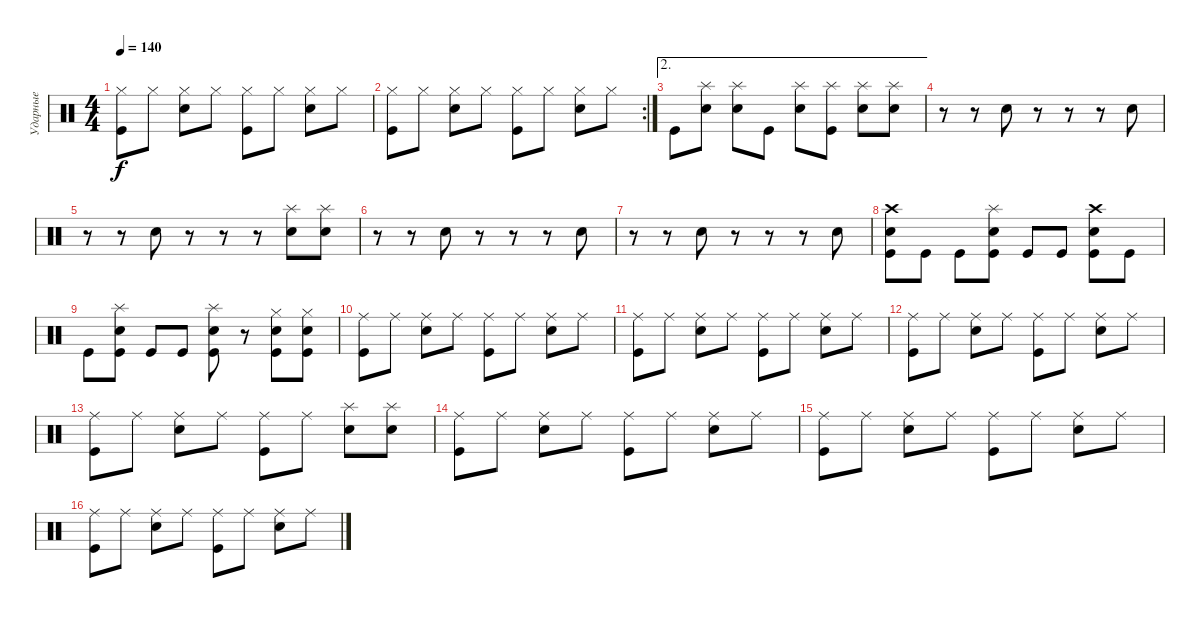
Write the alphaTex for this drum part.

\track ("Ударные" "Ударные") {instrument percussion}
\staff {score}
\articulation defaults
\ts (4 4)
\tempo 140
\clef neutral
\ks c
("Hi-Hat (closed)" "Kick (hit)").8{dy f} "Hi-Hat (closed)".8 ("Hi-Hat (closed)" "Snare (hit) 2").8 "Hi-Hat (closed)".8 ("Hi-Hat (closed)" "Kick (hit)").8 "Hi-Hat (closed)".8 ("Hi-Hat (closed)" "Snare (hit) 2").8 "Hi-Hat (closed)".8 |
\rc 2
("Hi-Hat (closed)" "Kick (hit)").8 "Hi-Hat (closed)".8 ("Hi-Hat (closed)" "Snare (hit) 2").8 "Hi-Hat (closed)".8 ("Hi-Hat (closed)" "Kick (hit)").8 "Hi-Hat (closed)".8 ("Hi-Hat (closed)" "Snare (hit) 2").8 "Hi-Hat (closed)".8 |
\ae 2 "Kick (hit)".8
("Splash (hit)" "Snare (hit) 2").8 ("Splash (hit)" "Snare (hit) 2").8 "Kick (hit)".8 ("Splash (hit)" "Snare (hit) 2").8 ("Splash (hit)" "Kick (hit)").8 ("Splash (hit)" "Snare (hit) 2").8 ("Splash (hit)" "Snare (hit) 2").8 |
r.8 r.8 "Snare (hit) 2".8 r.8 r.8 r.8 "Snare (hit) 2".8 |
r.8 r.8 "Snare (hit) 2".8 r.8 r.8 r.8 ("Splash (hit)" "Snare (hit) 2").8 ("Splash (hit)" "Snare (hit) 2").8 |
r.8 r.8 "Snare (hit) 2".8 r.8 r.8 r.8 "Snare (hit) 2".8 |
r.8 r.8 "Snare (hit) 2".8 r.8 r.8 r.8 "Snare (hit) 2".8 |
("Kick (hit)" "Crash high (hit)" "Snare (hit) 2").8 "Kick (hit)".8 "Kick (hit)".8 ("Kick (hit)" "Splash (hit)" "Snare (hit) 2").8 "Kick (hit)".8 "Kick (hit)".8 ("Kick (hit)" "Crash high (hit)" "Snare (hit) 2").8 "Kick (hit)".8 |
"Kick (hit)".8 ("Kick (hit)" "Splash (hit)" "Snare (hit) 2").8 "Kick (hit)".8 "Kick (hit)".8 ("Kick (hit)" "Splash (hit)" "Snare (hit) 2").8 r.8 ("Kick (hit)" "Hi-Hat (closed)" "Snare (hit) 2").8 ("Kick (hit)" "Hi-Hat (closed)" "Snare (hit) 2").8 |
("Ride (middle)" "Kick (hit)").8 "Ride (middle)".8 ("Ride (middle)" "Snare (hit) 2").8 "Ride (middle)".8 ("Ride (middle)" "Kick (hit)").8 "Ride (middle)".8 ("Ride (middle)" "Snare (hit) 2").8 "Ride (middle)".8 |
("Ride (middle)" "Kick (hit)").8 "Ride (middle)".8 ("Ride (middle)" "Snare (hit) 2").8 "Ride (middle)".8 ("Ride (middle)" "Kick (hit)").8 "Ride (middle)".8 ("Ride (middle)" "Snare (hit) 2").8 "Ride (middle)".8 |
("Ride (middle)" "Kick (hit)").8 "Ride (middle)".8 ("Ride (middle)" "Snare (hit) 2").8 "Ride (middle)".8 ("Ride (middle)" "Kick (hit)").8 "Ride (middle)".8 ("Ride (middle)" "Snare (hit) 2").8 "Ride (middle)".8 |
("Ride (middle)" "Kick (hit)").8 "Ride (middle)".8 ("Ride (middle)" "Snare (hit) 2").8 "Ride (middle)".8 ("Ride (middle)" "Kick (hit)").8 "Ride (middle)".8 ("Splash (hit)" "Snare (hit) 2").8 ("Splash (hit)" "Snare (hit) 2").8 |
("Ride (middle)" "Kick (hit)").8 "Ride (middle)".8 ("Ride (middle)" "Snare (hit) 2").8 "Ride (middle)".8 ("Ride (middle)" "Kick (hit)").8 "Ride (middle)".8 ("Ride (middle)" "Snare (hit) 2").8 "Ride (middle)".8 |
("Ride (middle)" "Kick (hit)").8 "Ride (middle)".8 ("Ride (middle)" "Snare (hit) 2").8 "Ride (middle)".8 ("Ride (middle)" "Kick (hit)").8 "Ride (middle)".8 ("Ride (middle)" "Snare (hit) 2").8 "Ride (middle)".8 |
("Ride (middle)" "Kick (hit)").8 "Ride (middle)".8 ("Ride (middle)" "Snare (hit) 2").8 "Ride (middle)".8 ("Ride (middle)" "Kick (hit)").8 "Ride (middle)".8 ("Ride (middle)" "Snare (hit) 2").8 "Ride (middle)".8
